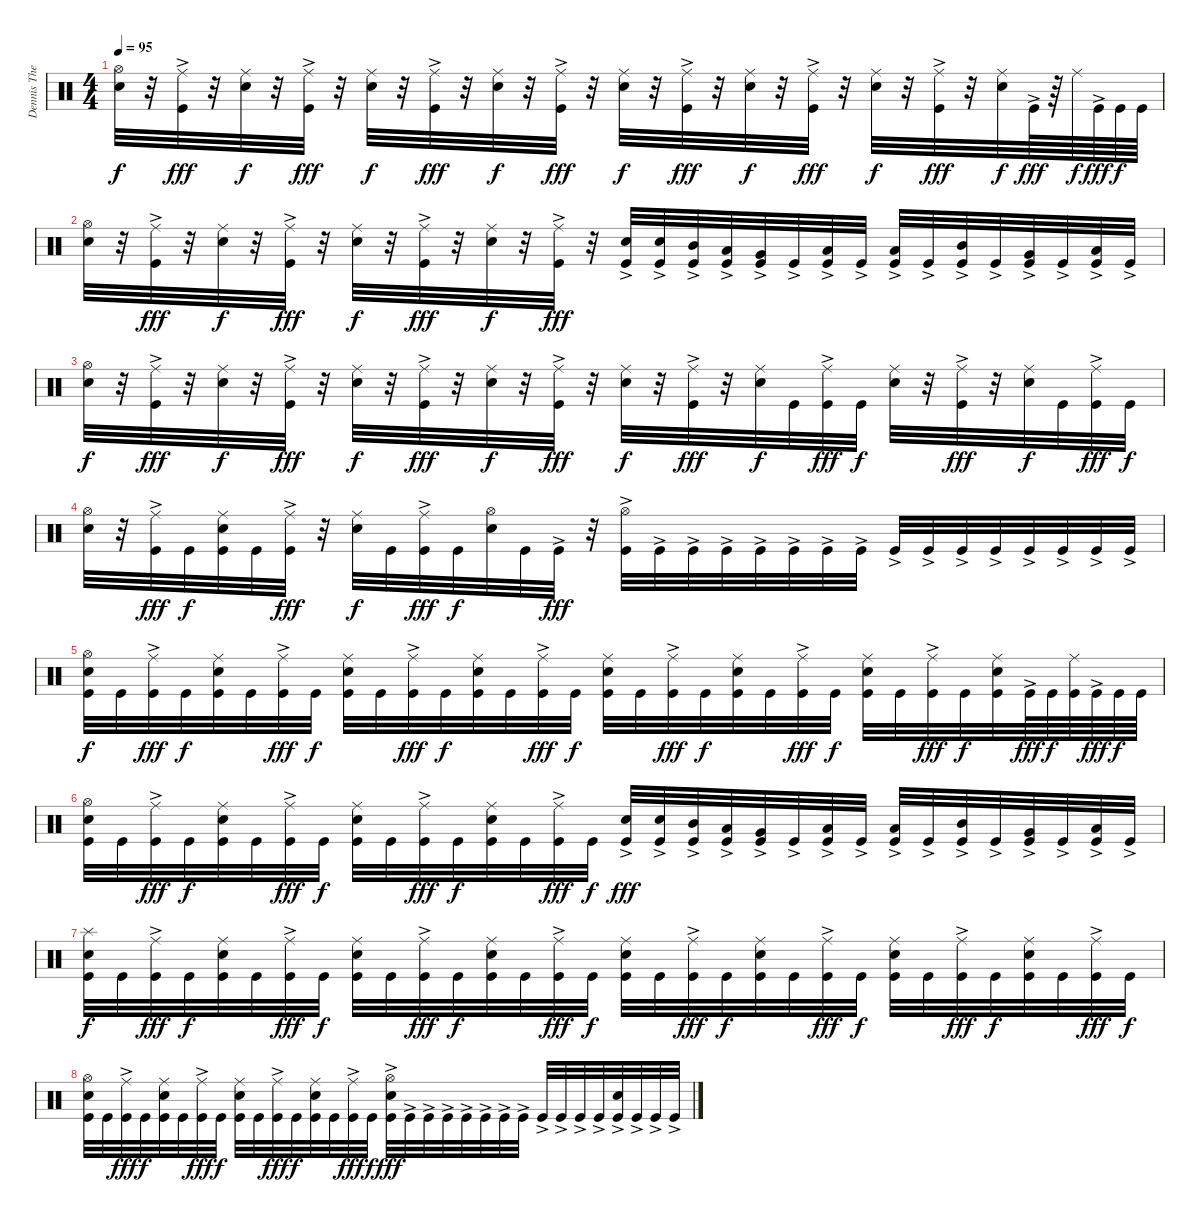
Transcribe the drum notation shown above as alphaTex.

\track ("Dennis The Menace" "Dennis The") {instrument percussion}
\staff {score}
\articulation defaults
\ts (4 4)
\tempo 95
\clef neutral
\ks c
("Hi-Hat (open)" "Electric Snare (hit)").32{dy f} r.32 ("Ride (middle)" "Kick (hit)"{ac}).32{dy fff} r.32 ("Ride (middle)" "Electric Snare (hit)").32{dy f} r.32 ("Ride (middle)" "Kick (hit)"{ac}).32{dy fff} r.32 ("Ride (middle)" "Electric Snare (hit)").32{dy f} r.32 ("Ride (middle)" "Kick (hit)"{ac}).32{dy fff} r.32 ("Ride (middle)" "Electric Snare (hit)").32{dy f} r.32 ("Ride (middle)" "Kick (hit)"{ac}).32{dy fff} r.32 ("Ride (middle)" "Electric Snare (hit)").32{dy f} r.32 ("Ride (middle)" "Kick (hit)"{ac}).32{dy fff} r.32 ("Ride (middle)" "Electric Snare (hit)").32{dy f} r.32 ("Ride (middle)" "Kick (hit)"{ac}).32{dy fff} r.32 ("Ride (middle)" "Electric Snare (hit)").32{dy f} r.32 ("Ride (middle)" "Kick (hit)"{ac}).32{dy fff} r.32 ("Ride (middle)" "Electric Snare (hit)").32{dy f} "Kick (hit)"{ac}.64{dy fff} r.64 "Ride (middle)".64{dy f} "Kick (hit)"{ac}.64{dy fff} "Kick (hit)".64{dy f} "Kick (hit)".64 |
("Hi-Hat (open)" "Electric Snare (hit)").32 r.32 ("Ride (middle)" "Kick (hit)"{ac}).32{dy fff} r.32 ("Ride (middle)" "Electric Snare (hit)").32{dy f} r.32 ("Ride (middle)" "Kick (hit)"{ac}).32{dy fff} r.32 ("Ride (middle)" "Electric Snare (hit)").32{dy f} r.32 ("Ride (middle)" "Kick (hit)"{ac}).32{dy fff} r.32 ("Ride (middle)" "Electric Snare (hit)").32{dy f} r.32 ("Ride (middle)" "Kick (hit)"{ac}).32{dy fff} r.32 ("Electric Snare (hit)"{ac} "Kick (hit)"{ac}).32 ("Electric Snare (hit)"{ac} "Kick (hit)"{ac}).32 ("Mid Tom (hit)" "Kick (hit)"{ac}).32 ("Low Tom (hit)" "Kick (hit)"{ac}).32 ("Very Low Tom (hit)" "Kick (hit)"{ac}).32 "Kick (hit)"{ac}.32 ("Low Floor Tom (hit)" "Kick (hit)"{ac}).32 "Kick (hit)"{ac}.32 ("Low Tom (hit)" "Kick (hit)"{ac}).32 "Kick (hit)"{ac}.32 ("Mid Tom (hit)" "Kick (hit)"{ac}).32 "Kick (hit)"{ac}.32 ("Very Low Tom (hit)" "Kick (hit)"{ac}).32 "Kick (hit)"{ac}.32 ("Low Floor Tom (hit)" "Kick (hit)"{ac}).32 "Kick (hit)"{ac}.32 |
("Hi-Hat (open)" "Electric Snare (hit)").32{dy f} r.32 ("Ride (middle)" "Kick (hit)"{ac}).32{dy fff} r.32 ("Ride (middle)" "Electric Snare (hit)").32{dy f} r.32 ("Ride (middle)" "Kick (hit)"{ac}).32{dy fff} r.32 ("Ride (middle)" "Electric Snare (hit)").32{dy f} r.32 ("Ride (middle)" "Kick (hit)"{ac}).32{dy fff} r.32 ("Ride (middle)" "Electric Snare (hit)").32{dy f} r.32 ("Ride (middle)" "Kick (hit)"{ac}).32{dy fff} r.32 ("Ride (middle)" "Electric Snare (hit)").32{dy f} r.32 ("Ride (middle)" "Kick (hit)"{ac}).32{dy fff} r.32 ("Ride (middle)" "Electric Snare (hit)").32{dy f} "Kick (hit)".32 ("Ride (middle)" "Kick (hit)"{ac}).32{dy fff} "Kick (hit)".32{dy f} ("Ride (middle)" "Electric Snare (hit)").32 r.32 ("Ride (middle)" "Kick (hit)"{ac}).32{dy fff} r.32 ("Ride (middle)" "Electric Snare (hit)").32{dy f} "Kick (hit)".32 ("Ride (middle)" "Kick (hit)"{ac}).32{dy fff} "Kick (hit)".32{dy f} |
("Hi-Hat (open)" "Electric Snare (hit)").32 r.32 ("Ride (middle)" "Kick (hit)"{ac}).32{dy fff} "Kick (hit)".32{dy f} ("Ride (middle)" "Electric Snare (hit)" "Kick (hit)").32 "Kick (hit)".32 ("Ride (middle)" "Kick (hit)"{ac}).32{dy fff} r.32 ("Ride (middle)" "Electric Snare (hit)").32{dy f} "Kick (hit)".32 ("Ride (middle)" "Kick (hit)"{ac}).32{dy fff} "Kick (hit)".32{dy f} ("Hi-Hat (open)" "Electric Snare (hit)").32 "Kick (hit)".32 "Kick (hit)"{ac}.32{dy fff} r.32 ("Hi-Hat (open)" "Kick (hit)"{ac}).32 "Kick (hit)"{ac}.32 "Kick (hit)"{ac}.32 "Kick (hit)"{ac}.32 "Kick (hit)"{ac}.32 "Kick (hit)"{ac}.32 "Kick (hit)"{ac}.32 "Kick (hit)"{ac}.32 "Kick (hit)"{ac}.32 "Kick (hit)"{ac}.32 "Kick (hit)"{ac}.32 "Kick (hit)"{ac}.32 "Kick (hit)"{ac}.32 "Kick (hit)"{ac}.32 "Kick (hit)"{ac}.32 "Kick (hit)"{ac}.32 |
("Hi-Hat (open)" "Electric Snare (hit)" "Kick (hit)").32{dy f} "Kick (hit)".32 ("Ride (middle)" "Kick (hit)"{ac}).32{dy fff} "Kick (hit)".32{dy f} ("Ride (middle)" "Electric Snare (hit)" "Kick (hit)").32 "Kick (hit)".32 ("Ride (middle)" "Kick (hit)"{ac}).32{dy fff} "Kick (hit)".32{dy f} ("Ride (middle)" "Electric Snare (hit)" "Kick (hit)").32 "Kick (hit)".32 ("Ride (middle)" "Kick (hit)"{ac}).32{dy fff} "Kick (hit)".32{dy f} ("Ride (middle)" "Electric Snare (hit)" "Kick (hit)").32 "Kick (hit)".32 ("Ride (middle)" "Kick (hit)"{ac}).32{dy fff} "Kick (hit)".32{dy f} ("Ride (middle)" "Electric Snare (hit)" "Kick (hit)").32 "Kick (hit)".32 ("Ride (middle)" "Kick (hit)"{ac}).32{dy fff} "Kick (hit)".32{dy f} ("Ride (middle)" "Electric Snare (hit)" "Kick (hit)").32 "Kick (hit)".32 ("Ride (middle)" "Kick (hit)"{ac}).32{dy fff} "Kick (hit)".32{dy f} ("Ride (middle)" "Electric Snare (hit)" "Kick (hit)").32 "Kick (hit)".32 ("Ride (middle)" "Kick (hit)"{ac}).32{dy fff} "Kick (hit)".32{dy f} ("Ride (middle)" "Electric Snare (hit)" "Kick (hit)").32 "Kick (hit)"{ac}.64{dy fff} "Kick (hit)".64{dy f} ("Ride (middle)" "Kick (hit)").64 "Kick (hit)"{ac}.64{dy fff} "Kick (hit)".64{dy f} "Kick (hit)".64 |
("Hi-Hat (open)" "Electric Snare (hit)" "Kick (hit)").32 "Kick (hit)".32 ("Ride (middle)" "Kick (hit)"{ac}).32{dy fff} "Kick (hit)".32{dy f} ("Ride (middle)" "Electric Snare (hit)" "Kick (hit)").32 "Kick (hit)".32 ("Ride (middle)" "Kick (hit)"{ac}).32{dy fff} "Kick (hit)".32{dy f} ("Ride (middle)" "Electric Snare (hit)" "Kick (hit)").32 "Kick (hit)".32 ("Ride (middle)" "Kick (hit)"{ac}).32{dy fff} "Kick (hit)".32{dy f} ("Ride (middle)" "Electric Snare (hit)" "Kick (hit)").32 "Kick (hit)".32 ("Ride (middle)" "Kick (hit)"{ac}).32{dy fff} "Kick (hit)".32{dy f} ("Electric Snare (hit)"{ac} "Kick (hit)"{ac}).32{dy fff} ("Electric Snare (hit)"{ac} "Kick (hit)"{ac}).32 ("Mid Tom (hit)" "Kick (hit)"{ac}).32 ("Low Tom (hit)" "Kick (hit)"{ac}).32 ("Very Low Tom (hit)" "Kick (hit)"{ac}).32 "Kick (hit)"{ac}.32 ("Low Floor Tom (hit)" "Kick (hit)"{ac}).32 "Kick (hit)"{ac}.32 ("Low Tom (hit)" "Kick (hit)"{ac}).32 "Kick (hit)"{ac}.32 ("Mid Tom (hit)" "Kick (hit)"{ac}).32 "Kick (hit)"{ac}.32 ("Very Low Tom (hit)" "Kick (hit)"{ac}).32 "Kick (hit)"{ac}.32 ("Low Floor Tom (hit)" "Kick (hit)"{ac}).32 "Kick (hit)"{ac}.32 |
("Splash (hit)" "Electric Snare (hit)" "Kick (hit)").32{dy f} "Kick (hit)".32 ("Ride (middle)" "Kick (hit)"{ac}).32{dy fff} "Kick (hit)".32{dy f} ("Ride (middle)" "Electric Snare (hit)" "Kick (hit)").32 "Kick (hit)".32 ("Ride (middle)" "Kick (hit)"{ac}).32{dy fff} "Kick (hit)".32{dy f} ("Ride (middle)" "Electric Snare (hit)" "Kick (hit)").32 "Kick (hit)".32 ("Ride (middle)" "Kick (hit)"{ac}).32{dy fff} "Kick (hit)".32{dy f} ("Ride (middle)" "Electric Snare (hit)" "Kick (hit)").32 "Kick (hit)".32 ("Ride (middle)" "Kick (hit)"{ac}).32{dy fff} "Kick (hit)".32{dy f} ("Ride (middle)" "Electric Snare (hit)" "Kick (hit)").32 "Kick (hit)".32 ("Ride (middle)" "Kick (hit)"{ac}).32{dy fff} "Kick (hit)".32{dy f} ("Ride (middle)" "Electric Snare (hit)" "Kick (hit)").32 "Kick (hit)".32 ("Ride (middle)" "Kick (hit)"{ac}).32{dy fff} "Kick (hit)".32{dy f} ("Ride (middle)" "Electric Snare (hit)" "Kick (hit)").32 "Kick (hit)".32 ("Ride (middle)" "Kick (hit)"{ac}).32{dy fff} "Kick (hit)".32{dy f} ("Ride (middle)" "Electric Snare (hit)" "Kick (hit)").32 "Kick (hit)".32 ("Ride (middle)" "Kick (hit)"{ac}).32{dy fff} "Kick (hit)".32{dy f} |
("Hi-Hat (open)" "Electric Snare (hit)" "Kick (hit)").32 "Kick (hit)".32 ("Ride (middle)" "Kick (hit)"{ac}).32{dy fff} "Kick (hit)".32{dy f} ("Ride (middle)" "Electric Snare (hit)" "Kick (hit)").32 "Kick (hit)".32 ("Ride (middle)" "Kick (hit)"{ac}).32{dy fff} "Kick (hit)".32{dy f} ("Ride (middle)" "Electric Snare (hit)" "Kick (hit)").32 "Kick (hit)".32 ("Ride (middle)" "Kick (hit)"{ac}).32{dy fff} "Kick (hit)".32{dy f} ("Ride (middle)" "Electric Snare (hit)" "Kick (hit)").32 "Kick (hit)".32 ("Ride (middle)" "Kick (hit)"{ac}).32{dy fff} "Kick (hit)".32{dy f} ("Hi-Hat (open)" "Electric Snare (hit)"{ac} "Kick (hit)"{ac}).32{dy fff} "Kick (hit)"{ac}.32 "Kick (hit)"{ac}.32 "Kick (hit)"{ac}.32 "Kick (hit)"{ac}.32 "Kick (hit)"{ac}.32 "Kick (hit)"{ac}.32 "Kick (hit)"{ac}.32 "Kick (hit)"{ac}.32 "Kick (hit)"{ac}.32 "Kick (hit)"{ac}.32 "Kick (hit)"{ac}.32 ("Electric Snare (hit)"{ac} "Kick (hit)"{ac}).32 "Kick (hit)"{ac}.32 "Kick (hit)"{ac}.32 "Kick (hit)"{ac}.32
